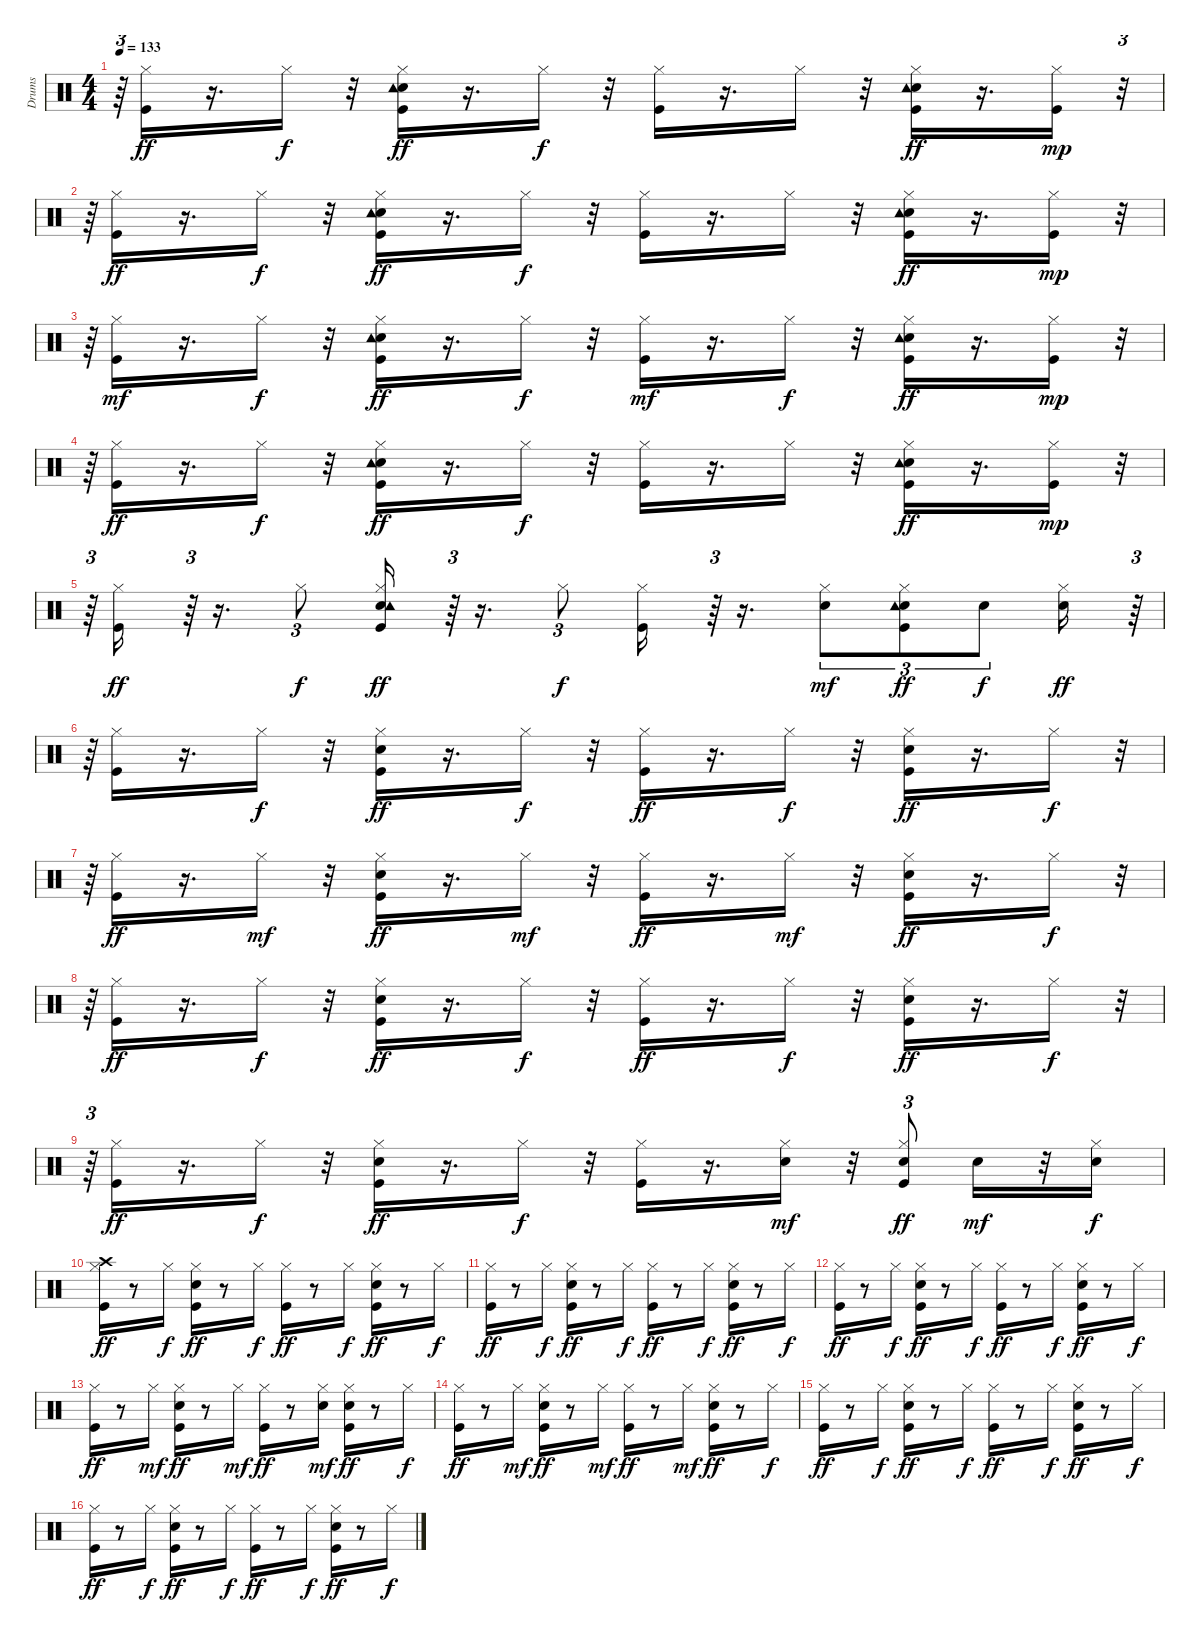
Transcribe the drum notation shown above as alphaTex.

\track ("Drums   " "Drums   ") {instrument percussion}
\staff {score}
\articulation defaults
\ts (4 4)
\tempo 133
\clef neutral
\ks c
r.64{tu (3 2) dy mp} ("Kick (hit)" "Hi-Hat (closed)").16{dy ff} r.16{d} "Hi-Hat (closed)".16{dy f} r.32 ("Kick (hit)" "Snare (hit) 2" "Hi-Hat (closed)" "Tambourine (hit)").16{dy ff} r.16{d} "Hi-Hat (closed)".16{dy f} r.32 ("Kick (hit)" "Hi-Hat (closed)").16 r.16{d} "Hi-Hat (closed)".16 r.32 ("Kick (hit)" "Snare (hit) 2" "Hi-Hat (closed)" "Tambourine (hit)").16{dy ff} r.16{d} ("Kick (hit)" "Hi-Hat (closed)").16{dy mp} r.32{tu (3 2)} |
r.64{tu (3 2)} ("Kick (hit)" "Hi-Hat (closed)").16{dy ff} r.16{d} "Hi-Hat (closed)".16{dy f} r.32 ("Kick (hit)" "Snare (hit) 2" "Hi-Hat (closed)" "Tambourine (hit)").16{dy ff} r.16{d} "Hi-Hat (closed)".16{dy f} r.32 ("Kick (hit)" "Hi-Hat (closed)").16 r.16{d} "Hi-Hat (closed)".16 r.32 ("Kick (hit)" "Snare (hit) 2" "Hi-Hat (closed)" "Tambourine (hit)").16{dy ff} r.16{d} ("Kick (hit)" "Hi-Hat (closed)").16{dy mp} r.32{tu (3 2)} |
r.64{tu (3 2)} ("Kick (hit)" "Hi-Hat (closed)").16{dy mf} r.16{d} "Hi-Hat (closed)".16{dy f} r.32 ("Kick (hit)" "Snare (hit) 2" "Hi-Hat (closed)" "Tambourine (hit)").16{dy ff} r.16{d} "Hi-Hat (closed)".16{dy f} r.32 ("Kick (hit)" "Hi-Hat (closed)").16{dy mf} r.16{d} "Hi-Hat (closed)".16{dy f} r.32 ("Kick (hit)" "Snare (hit) 2" "Hi-Hat (closed)" "Tambourine (hit)").16{dy ff} r.16{d} ("Kick (hit)" "Hi-Hat (closed)").16{dy mp} r.32{tu (3 2)} |
r.64{tu (3 2)} ("Kick (hit)" "Hi-Hat (closed)").16{dy ff} r.16{d} "Hi-Hat (closed)".16{dy f} r.32 ("Kick (hit)" "Snare (hit) 2" "Hi-Hat (closed)" "Tambourine (hit)").16{dy ff} r.16{d} "Hi-Hat (closed)".16{dy f} r.32 ("Kick (hit)" "Hi-Hat (closed)").16 r.16{d} "Hi-Hat (closed)".16 r.32 ("Kick (hit)" "Snare (hit) 2" "Hi-Hat (closed)" "Tambourine (hit)").16{dy ff} r.16{d} ("Kick (hit)" "Hi-Hat (closed)").16{dy mp} r.32{tu (3 2)} |
r.64{tu (3 2)} ("Kick (hit)" "Hi-Hat (closed)").16{dy ff} r.64{tu (3 2)} r.16{d} "Hi-Hat (closed)".8{tu (3 2) dy f} ("Kick (hit)" "Snare (hit) 2" "Hi-Hat (closed)" "Tambourine (hit)").16{dy ff} r.64{tu (3 2)} r.16{d} "Hi-Hat (closed)".8{tu (3 2) dy f} ("Kick (hit)" "Hi-Hat (closed)").16 r.64{tu (3 2)} r.16{d} ("Snare (hit) 2" "Hi-Hat (closed)").8{tu (3 2) dy mf} ("Kick (hit)" "Snare (hit) 2" "Hi-Hat (closed)" "Tambourine (hit)").8{tu (3 2) dy ff} "Snare (hit) 2".8{tu (3 2) dy f} ("Snare (hit) 2" "Hi-Hat (closed)").16{dy ff} r.64{tu (3 2)} |
r.64{tu (3 2)} ("Kick (hit)" "Hi-Hat (closed)").16 r.16{d} "Hi-Hat (closed)".16{dy f} r.32 ("Kick (hit)" "Snare (hit) 2" "Hi-Hat (closed)").16{dy ff} r.16{d} "Hi-Hat (closed)".16{dy f} r.32 ("Kick (hit)" "Hi-Hat (closed)").16{dy ff} r.16{d} "Hi-Hat (closed)".16{dy f} r.32 ("Kick (hit)" "Snare (hit) 2" "Hi-Hat (closed)").16{dy ff} r.16{d} "Hi-Hat (closed)".16{dy f} r.32{tu (3 2)} |
r.64{tu (3 2)} ("Kick (hit)" "Hi-Hat (closed)").16{dy ff} r.16{d} "Hi-Hat (closed)".16{dy mf} r.32 ("Kick (hit)" "Snare (hit) 2" "Hi-Hat (closed)").16{dy ff} r.16{d} "Hi-Hat (closed)".16{dy mf} r.32 ("Kick (hit)" "Hi-Hat (closed)").16{dy ff} r.16{d} "Hi-Hat (closed)".16{dy mf} r.32 ("Kick (hit)" "Snare (hit) 2" "Hi-Hat (closed)").16{dy ff} r.16{d} "Hi-Hat (closed)".16{dy f} r.32{tu (3 2)} |
r.64{tu (3 2)} ("Kick (hit)" "Hi-Hat (closed)").16{dy ff} r.16{d} "Hi-Hat (closed)".16{dy f} r.32 ("Kick (hit)" "Snare (hit) 2" "Hi-Hat (closed)").16{dy ff} r.16{d} "Hi-Hat (closed)".16{dy f} r.32 ("Kick (hit)" "Hi-Hat (closed)").16{dy ff} r.16{d} "Hi-Hat (closed)".16{dy f} r.32 ("Kick (hit)" "Snare (hit) 2" "Hi-Hat (closed)").16{dy ff} r.16{d} "Hi-Hat (closed)".16{dy f} r.32{tu (3 2)} |
r.64{tu (3 2)} ("Kick (hit)" "Hi-Hat (closed)").16{dy ff} r.16{d} "Hi-Hat (closed)".16{dy f} r.32 ("Kick (hit)" "Snare (hit) 2" "Hi-Hat (closed)").16{dy ff} r.16{d} "Hi-Hat (closed)".16{dy f} r.32 ("Kick (hit)" "Hi-Hat (closed)").16 r.16{d} ("Snare (hit) 2" "Hi-Hat (closed)").16{dy mf} r.32 ("Kick (hit)" "Snare (hit) 2" "Hi-Hat (closed)").8{tu (3 2) dy ff} "Snare (hit) 2".16{dy mf} r.32 ("Snare (hit) 2" "Hi-Hat (closed)").16{dy f} |
("Kick (hit)" "Hi-Hat (closed)" "Crash high (hit)").16{dy ff} r.8 "Hi-Hat (closed)".16{dy f} ("Kick (hit)" "Snare (hit) 2" "Hi-Hat (closed)").16{dy ff} r.8 "Hi-Hat (closed)".16{dy f} ("Kick (hit)" "Hi-Hat (closed)").16{dy ff} r.8 "Hi-Hat (closed)".16{dy f} ("Kick (hit)" "Snare (hit) 2" "Hi-Hat (closed)").16{dy ff} r.8 "Hi-Hat (closed)".16{dy f} |
("Kick (hit)" "Hi-Hat (closed)").16{dy ff} r.8 "Hi-Hat (closed)".16{dy f} ("Kick (hit)" "Snare (hit) 2" "Hi-Hat (closed)").16{dy ff} r.8 "Hi-Hat (closed)".16{dy f} ("Kick (hit)" "Hi-Hat (closed)").16{dy ff} r.8 "Hi-Hat (closed)".16{dy f} ("Kick (hit)" "Snare (hit) 2" "Hi-Hat (closed)").16{dy ff} r.8 "Hi-Hat (closed)".16{dy f} |
("Kick (hit)" "Hi-Hat (closed)").16{dy ff} r.8 "Hi-Hat (closed)".16{dy f} ("Kick (hit)" "Snare (hit) 2" "Hi-Hat (closed)").16{dy ff} r.8 "Hi-Hat (closed)".16{dy f} ("Kick (hit)" "Hi-Hat (closed)").16{dy ff} r.8 "Hi-Hat (closed)".16{dy f} ("Kick (hit)" "Snare (hit) 2" "Hi-Hat (closed)").16{dy ff} r.8 "Hi-Hat (closed)".16{dy f} |
("Kick (hit)" "Hi-Hat (closed)").16{dy ff} r.8 "Hi-Hat (closed)".16{dy mf} ("Kick (hit)" "Snare (hit) 2" "Hi-Hat (closed)").16{dy ff} r.8 "Hi-Hat (closed)".16{dy mf} ("Kick (hit)" "Hi-Hat (closed)").16{dy ff} r.8 ("Snare (hit) 2" "Hi-Hat (closed)").16{dy mf} ("Kick (hit)" "Snare (hit) 2" "Hi-Hat (closed)").16{dy ff} r.8 "Hi-Hat (closed)".16{dy f} |
("Kick (hit)" "Hi-Hat (closed)").16{dy ff} r.8 "Hi-Hat (closed)".16{dy mf} ("Kick (hit)" "Snare (hit) 2" "Hi-Hat (closed)").16{dy ff} r.8 "Hi-Hat (closed)".16{dy mf} ("Kick (hit)" "Hi-Hat (closed)").16{dy ff} r.8 "Hi-Hat (closed)".16{dy mf} ("Kick (hit)" "Snare (hit) 2" "Hi-Hat (closed)").16{dy ff} r.8 "Hi-Hat (closed)".16{dy f} |
("Kick (hit)" "Hi-Hat (closed)").16{dy ff} r.8 "Hi-Hat (closed)".16{dy f} ("Kick (hit)" "Snare (hit) 2" "Hi-Hat (closed)").16{dy ff} r.8 "Hi-Hat (closed)".16{dy f} ("Kick (hit)" "Hi-Hat (closed)").16{dy ff} r.8 "Hi-Hat (closed)".16{dy f} ("Kick (hit)" "Snare (hit) 2" "Hi-Hat (closed)").16{dy ff} r.8 "Hi-Hat (closed)".16{dy f} |
("Kick (hit)" "Hi-Hat (closed)").16{dy ff} r.8 "Hi-Hat (closed)".16{dy f} ("Kick (hit)" "Snare (hit) 2" "Hi-Hat (closed)").16{dy ff} r.8 "Hi-Hat (closed)".16{dy f} ("Kick (hit)" "Hi-Hat (closed)").16{dy ff} r.8 "Hi-Hat (closed)".16{dy f} ("Kick (hit)" "Snare (hit) 2" "Hi-Hat (closed)").16{dy ff} r.8 "Hi-Hat (closed)".16{dy f}
